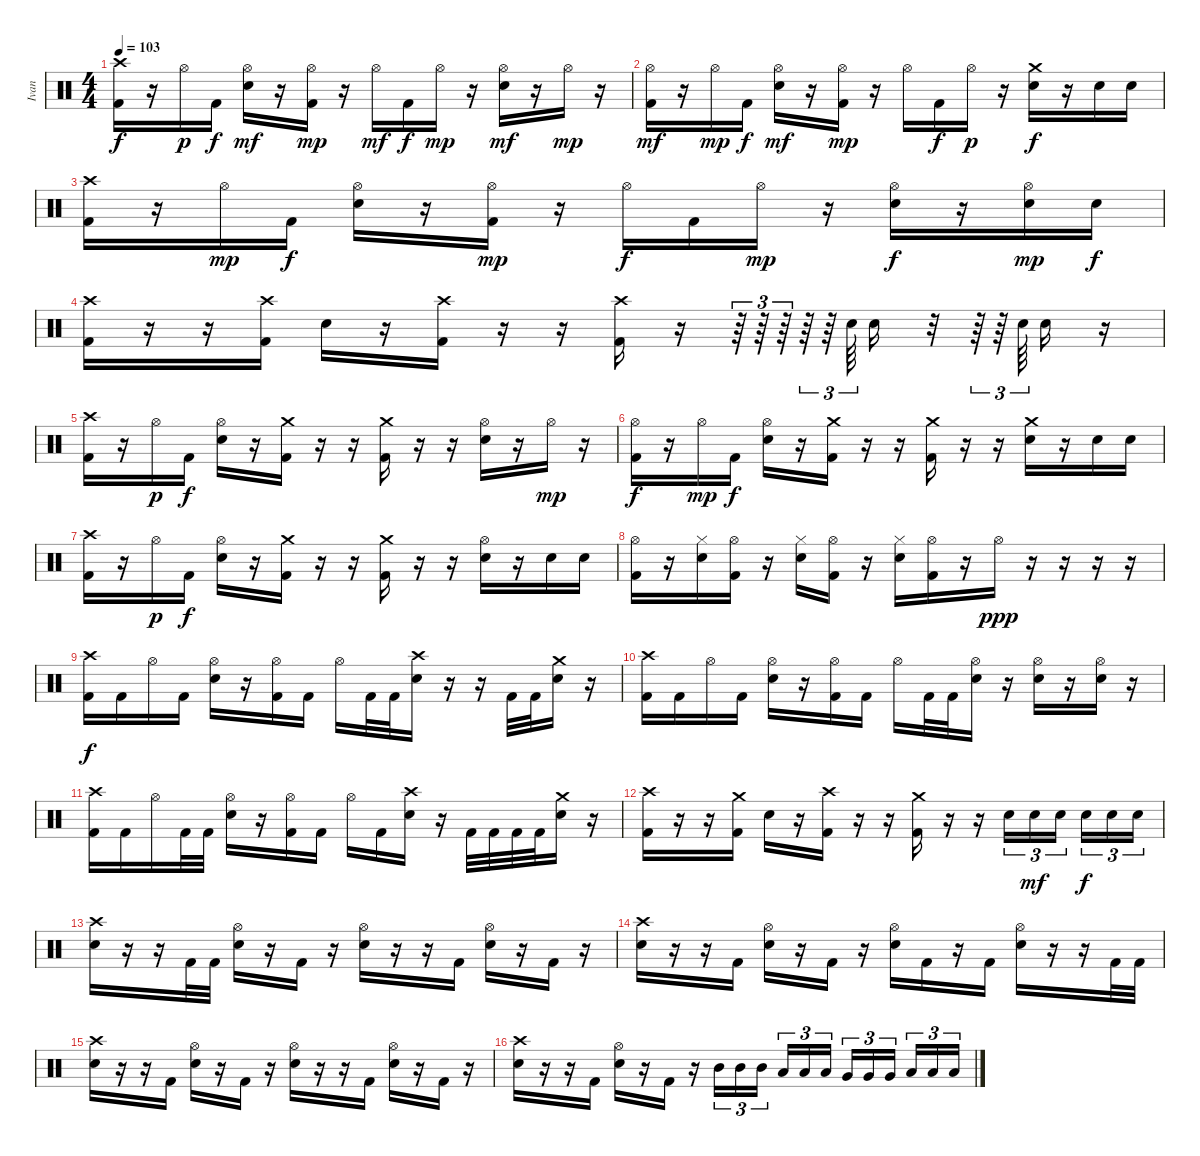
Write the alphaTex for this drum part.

\track ("Ivan" "Ivan") {instrument percussion}
\staff {score}
\articulation defaults
\ts (4 4)
\tempo 103
\clef neutral
\ks c
("Kick (hit) 2" "Crash high (hit)").16{dy f} r.16 "Hi-Hat (open)".16{dy p} "Kick (hit) 2".16{dy f} ("Hi-Hat (open)" "Snare (hit) 2").16{dy mf} r.16 ("Hi-Hat (open)" "Kick (hit) 2").16{dy mp} r.16 "Hi-Hat (open)".16{dy mf} "Kick (hit) 2".16{dy f} "Hi-Hat (open)".16{dy mp} r.16 ("Hi-Hat (open)" "Snare (hit) 2").16{dy mf} r.16 "Hi-Hat (open)".16{dy mp} r.16 |
("Kick (hit) 2" "Hi-Hat (open)").16{dy mf} r.16 "Hi-Hat (open)".16{dy mp} "Kick (hit) 2".16{dy f} ("Hi-Hat (open)" "Snare (hit) 2").16{dy mf} r.16 ("Hi-Hat (open)" "Kick (hit) 2").16{dy mp} r.16 "Hi-Hat (open)".16 "Kick (hit) 2".16{dy f} "Hi-Hat (open)".16{dy p} r.16 ("Crash medium (hit)" "Snare (hit) 2").16{dy f} r.16 "Snare (hit) 2".16 "Snare (hit) 2".16 |
("Kick (hit) 2" "Crash high (hit)").16 r.16 "Hi-Hat (open)".16{dy mp} "Kick (hit) 2".16{dy f} ("Hi-Hat (open)" "Snare (hit) 2").16 r.16 ("Hi-Hat (open)" "Kick (hit) 2").16{dy mp} r.16 "Hi-Hat (open)".16{dy f} "Kick (hit) 2".16 "Hi-Hat (open)".16{dy mp} r.16 ("Hi-Hat (open)" "Snare (hit) 2").16{dy f} r.16 ("Hi-Hat (open)" "Snare (hit) 2").16{dy mp} "Snare (hit) 2".16{dy f} |
("Crash high (hit)" "Kick (hit) 2").16 r.16 r.16 ("Crash high (hit)" "Kick (hit) 2").16 "Snare (hit) 2".16 r.16 ("Crash high (hit)" "Kick (hit) 2").16 r.16 r.16 ("Crash high (hit)" "Kick (hit) 2").16 r.16 r.64{tu (3 2)} r.64{tu (3 2)} r.64{tu (3 2)} r.64{tu (3 2)} r.64{tu (3 2)} "Snare (hit) 2".64{tu (3 2)} "Snare (hit) 2".16 r.32 r.64{tu (3 2)} r.64{tu (3 2)} "Snare (hit) 2".64{tu (3 2)} "Snare (hit) 2".16 r.16 |
("Kick (hit) 2" "Crash high (hit)").16 r.16 "Hi-Hat (open)".16{dy p} "Kick (hit) 2".16{dy f} ("Hi-Hat (open)" "Snare (hit) 2").16 r.16 ("Crash medium (hit)" "Kick (hit) 2").16 r.16 r.16 ("Crash medium (hit)" "Kick (hit) 2").16 r.16 r.16 ("Hi-Hat (open)" "Snare (hit) 2").16 r.16 "Hi-Hat (open)".16{dy mp} r.16 |
("Kick (hit) 2" "Hi-Hat (open)").16{dy f} r.16 "Hi-Hat (open)".16{dy mp} "Kick (hit) 2".16{dy f} ("Hi-Hat (open)" "Snare (hit) 2").16 r.16 ("Crash medium (hit)" "Kick (hit) 2").16 r.16 r.16 ("Crash medium (hit)" "Kick (hit) 2").16 r.16 r.16 ("Crash medium (hit)" "Snare (hit) 2").16 r.16 "Snare (hit) 2".16 "Snare (hit) 2".16 |
("Kick (hit) 2" "Crash high (hit)").16 r.16 "Hi-Hat (open)".16{dy p} "Kick (hit) 2".16{dy f} ("Hi-Hat (open)" "Snare (hit) 2").16 r.16 ("Crash medium (hit)" "Kick (hit) 2").16 r.16 r.16 ("Crash medium (hit)" "Kick (hit) 2").16 r.16 r.16 ("Hi-Hat (open)" "Snare (hit) 2").16 r.16 "Snare (hit) 2".16 "Snare (hit) 2".16 |
("Hi-Hat (open)" "Kick (hit) 2").16 r.16 ("Hi-Hat (closed)" "Snare (hit) 2").16 ("Hi-Hat (open)" "Kick (hit) 2").16 r.16 ("Hi-Hat (closed)" "Snare (hit) 2").16 ("Hi-Hat (open)" "Kick (hit) 2").16 r.16 ("Hi-Hat (closed)" "Snare (hit) 2").16 ("Hi-Hat (open)" "Kick (hit) 2").16 r.16 "Hi-Hat (open)".16{dy ppp} r.16 r.16 r.16 r.16 |
("Kick (hit) 2" "Crash high (hit)").16{dy f} "Kick (hit) 2".16 "Hi-Hat (open)".16 "Kick (hit) 2".16 ("Snare (hit) 2" "Hi-Hat (open)").16 r.16 ("Kick (hit) 2" "Hi-Hat (open)").16 "Kick (hit) 2".16 "Hi-Hat (open)".16 "Kick (hit) 2".32 "Kick (hit) 2".32 ("Snare (hit) 2" "Crash high (hit)").16 r.16 r.16 "Kick (hit) 2".32 "Kick (hit) 2".32 ("Snare (hit) 2" "Crash medium (hit)").16 r.16 |
("Crash high (hit)" "Kick (hit) 2").16 "Kick (hit) 2".16 "Hi-Hat (open)".16 "Kick (hit) 2".16 ("Hi-Hat (open)" "Snare (hit) 2").16 r.16 ("Hi-Hat (open)" "Kick (hit) 2").16 "Kick (hit) 2".16 "Hi-Hat (open)".16 "Kick (hit) 2".32 "Kick (hit) 2".32 ("Hi-Hat (open)" "Snare (hit) 2").16 r.16 ("Hi-Hat (open)" "Snare (hit) 2").16 r.16 ("Hi-Hat (open)" "Snare (hit) 2").16 r.16 |
("Kick (hit) 2" "Crash high (hit)").16 "Kick (hit) 2".16 "Hi-Hat (open)".16 "Kick (hit) 2".32 "Kick (hit) 2".32 ("Snare (hit) 2" "Hi-Hat (open)").16 r.16 ("Kick (hit) 2" "Hi-Hat (open)").16 "Kick (hit) 2".16 "Hi-Hat (open)".16 "Kick (hit) 2".16 ("Snare (hit) 2" "Crash high (hit)").16 r.16 "Kick (hit) 2".32 "Kick (hit) 2".32 "Kick (hit) 2".32 "Kick (hit) 2".32 ("Snare (hit) 2" "Crash medium (hit)").16 r.16 |
("Kick (hit) 2" "Crash high (hit)").16 r.16 r.16 ("Kick (hit) 2" "Crash medium (hit)").16 "Snare (hit) 2".16 r.16 ("Kick (hit) 2" "Crash high (hit)").16 r.16 r.16 ("Kick (hit) 2" "Crash medium (hit)").16 r.16 r.16 "Snare (hit) 2".16{tu (3 2)} "Snare (hit) 2".16{tu (3 2) dy mf} "Snare (hit) 2".16{tu (3 2)} "Snare (hit) 2".16{tu (3 2) dy f} "Snare (hit) 2".16{tu (3 2)} "Snare (hit) 2".16{tu (3 2)} |
("Crash high (hit)" "Snare (hit) 2").16 r.16 r.16 "Kick (hit) 2".32 "Kick (hit) 2".32 ("Hi-Hat (open)" "Snare (hit) 2").16 r.16 "Kick (hit) 2".16 r.16 ("Hi-Hat (open)" "Snare (hit) 2").16 r.16 r.16 "Kick (hit) 2".16 ("Hi-Hat (open)" "Snare (hit) 2").16 r.16 "Kick (hit) 2".16 r.16 |
("Crash high (hit)" "Snare (hit) 2").16 r.16 r.16 "Kick (hit) 2".16 ("Hi-Hat (open)" "Snare (hit) 2").16 r.16 "Kick (hit) 2".16 r.16 ("Hi-Hat (open)" "Snare (hit) 2").16 "Kick (hit) 2".16 r.16 "Kick (hit) 2".16 ("Hi-Hat (open)" "Snare (hit) 2").16 r.16 r.16 "Kick (hit) 2".32 "Kick (hit) 2".32 |
("Crash high (hit)" "Snare (hit) 2").16 r.16 r.16 "Kick (hit) 2".16 ("Hi-Hat (open)" "Snare (hit) 2").16 r.16 "Kick (hit) 2".16 r.16 ("Hi-Hat (open)" "Snare (hit) 2").16 r.16 r.16 "Kick (hit) 2".16 ("Hi-Hat (open)" "Snare (hit) 2").16 r.16 "Kick (hit) 2".16 r.16 |
("Crash high (hit)" "Snare (hit) 2").16 r.16 r.16 "Kick (hit) 2".16 ("Hi-Hat (open)" "Snare (hit) 2").16 r.16 "Kick (hit) 2".16 r.16 "Mid Tom (hit)".16{tu (3 2)} "Mid Tom (hit)".16{tu (3 2)} "Mid Tom (hit)".16{tu (3 2)} "Low Tom (hit)".16{tu (3 2)} "Low Tom (hit)".16{tu (3 2)} "Low Tom (hit)".16{tu (3 2)} "Very Low Tom (hit)".16{tu (3 2)} "Very Low Tom (hit)".16{tu (3 2)} "Very Low Tom (hit)".16{tu (3 2)} "Low Floor Tom (hit)".16{tu (3 2)} "Low Floor Tom (hit)".16{tu (3 2)} "Low Floor Tom (hit)".16{tu (3 2)}
